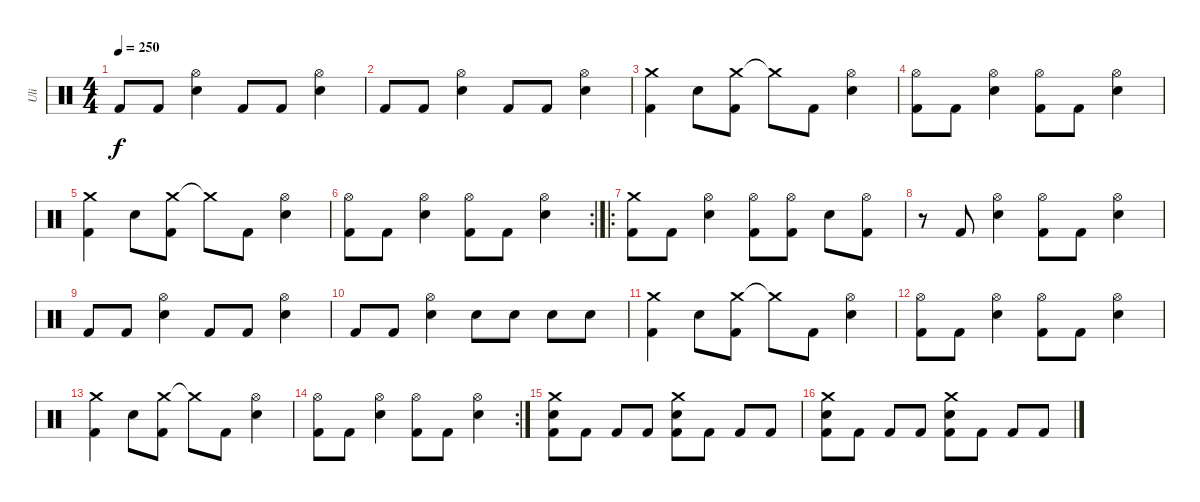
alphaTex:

\track ("Uli" "Uli") {instrument percussion}
\staff {score}
\articulation defaults
\ts (4 4)
\tempo 250
\clef neutral
\ks c "Kick (hit) 2".8{dy f} "Kick (hit) 2".8
("Hi-Hat (open)" "Snare (hit) 2").4 "Kick (hit) 2".8 "Kick (hit) 2".8 ("Hi-Hat (open)" "Snare (hit) 2").4 |
"Kick (hit) 2".8 "Kick (hit) 2".8 ("Hi-Hat (open)" "Snare (hit) 2").4 "Kick (hit) 2".8 "Kick (hit) 2".8 ("Hi-Hat (open)" "Snare (hit) 2").4 |
("Crash medium (hit)" "Kick (hit) 2").4 "Snare (hit) 2".8 ("Crash medium (hit)" "Kick (hit) 2").8 "Crash medium (hit)"{t}.8 "Kick (hit) 2".8 ("Hi-Hat (open)" "Snare (hit) 2").4 |
("Hi-Hat (open)" "Kick (hit) 2").8 "Kick (hit) 2".8 ("Hi-Hat (open)" "Snare (hit) 2").4 ("Hi-Hat (open)" "Kick (hit) 2").8 "Kick (hit) 2".8 ("Hi-Hat (open)" "Snare (hit) 2").4 |
("Crash medium (hit)" "Kick (hit) 2").4 "Snare (hit) 2".8 ("Crash medium (hit)" "Kick (hit) 2").8 "Crash medium (hit)"{t}.8 "Kick (hit) 2".8 ("Hi-Hat (open)" "Snare (hit) 2").4 |
\rc 2
("Hi-Hat (open)" "Kick (hit) 2").8 "Kick (hit) 2".8 ("Hi-Hat (open)" "Snare (hit) 2").4 ("Hi-Hat (open)" "Kick (hit) 2").8 "Kick (hit) 2".8 ("Hi-Hat (open)" "Snare (hit) 2").4 |
\ro
("Crash medium (hit)" "Kick (hit) 2").8 "Kick (hit) 2".8 ("Hi-Hat (open)" "Snare (hit) 2").4 ("Hi-Hat (open)" "Kick (hit) 2").8 ("Hi-Hat (open)" "Kick (hit) 2").8 "Snare (hit) 2".8 ("Hi-Hat (open)" "Kick (hit) 2").8 |
r.8 "Kick (hit) 2".8 ("Hi-Hat (open)" "Snare (hit) 2").4 ("Hi-Hat (open)" "Kick (hit) 2").8 "Kick (hit) 2".8 ("Hi-Hat (open)" "Snare (hit) 2").4 |
"Kick (hit) 2".8 "Kick (hit) 2".8 ("Hi-Hat (open)" "Snare (hit) 2").4 "Kick (hit) 2".8 "Kick (hit) 2".8 ("Hi-Hat (open)" "Snare (hit) 2").4 |
"Kick (hit) 2".8 "Kick (hit) 2".8 ("Hi-Hat (open)" "Snare (hit) 2").4 "Snare (hit) 2".8 "Snare (hit) 2".8 "Snare (hit) 2".8 "Snare (hit) 2".8 |
("Crash medium (hit)" "Kick (hit) 2").4 "Snare (hit) 2".8 ("Crash medium (hit)" "Kick (hit) 2").8 "Crash medium (hit)"{t}.8 "Kick (hit) 2".8 ("Hi-Hat (open)" "Snare (hit) 2").4 |
("Hi-Hat (open)" "Kick (hit) 2").8 "Kick (hit) 2".8 ("Hi-Hat (open)" "Snare (hit) 2").4 ("Hi-Hat (open)" "Kick (hit) 2").8 "Kick (hit) 2".8 ("Hi-Hat (open)" "Snare (hit) 2").4 |
("Crash medium (hit)" "Kick (hit) 2").4 "Snare (hit) 2".8 ("Crash medium (hit)" "Kick (hit) 2").8 "Crash medium (hit)"{t}.8 "Kick (hit) 2".8 ("Hi-Hat (open)" "Snare (hit) 2").4 |
\rc 2
("Hi-Hat (open)" "Kick (hit) 2").8 "Kick (hit) 2".8 ("Hi-Hat (open)" "Snare (hit) 2").4 ("Hi-Hat (open)" "Kick (hit) 2").8 "Kick (hit) 2".8 ("Hi-Hat (open)" "Snare (hit) 2").4 |
("Crash medium (hit)" "Snare (hit) 2" "Kick (hit) 2").8 "Kick (hit) 2".8 "Kick (hit) 2".8 "Kick (hit) 2".8 ("Crash medium (hit)" "Snare (hit) 2" "Kick (hit) 2").8 "Kick (hit) 2".8 "Kick (hit) 2".8 "Kick (hit) 2".8 |
("Crash medium (hit)" "Snare (hit) 2" "Kick (hit) 2").8 "Kick (hit) 2".8 "Kick (hit) 2".8 "Kick (hit) 2".8 ("Crash medium (hit)" "Snare (hit) 2" "Kick (hit) 2").8 "Kick (hit) 2".8 "Kick (hit) 2".8 "Kick (hit) 2".8
